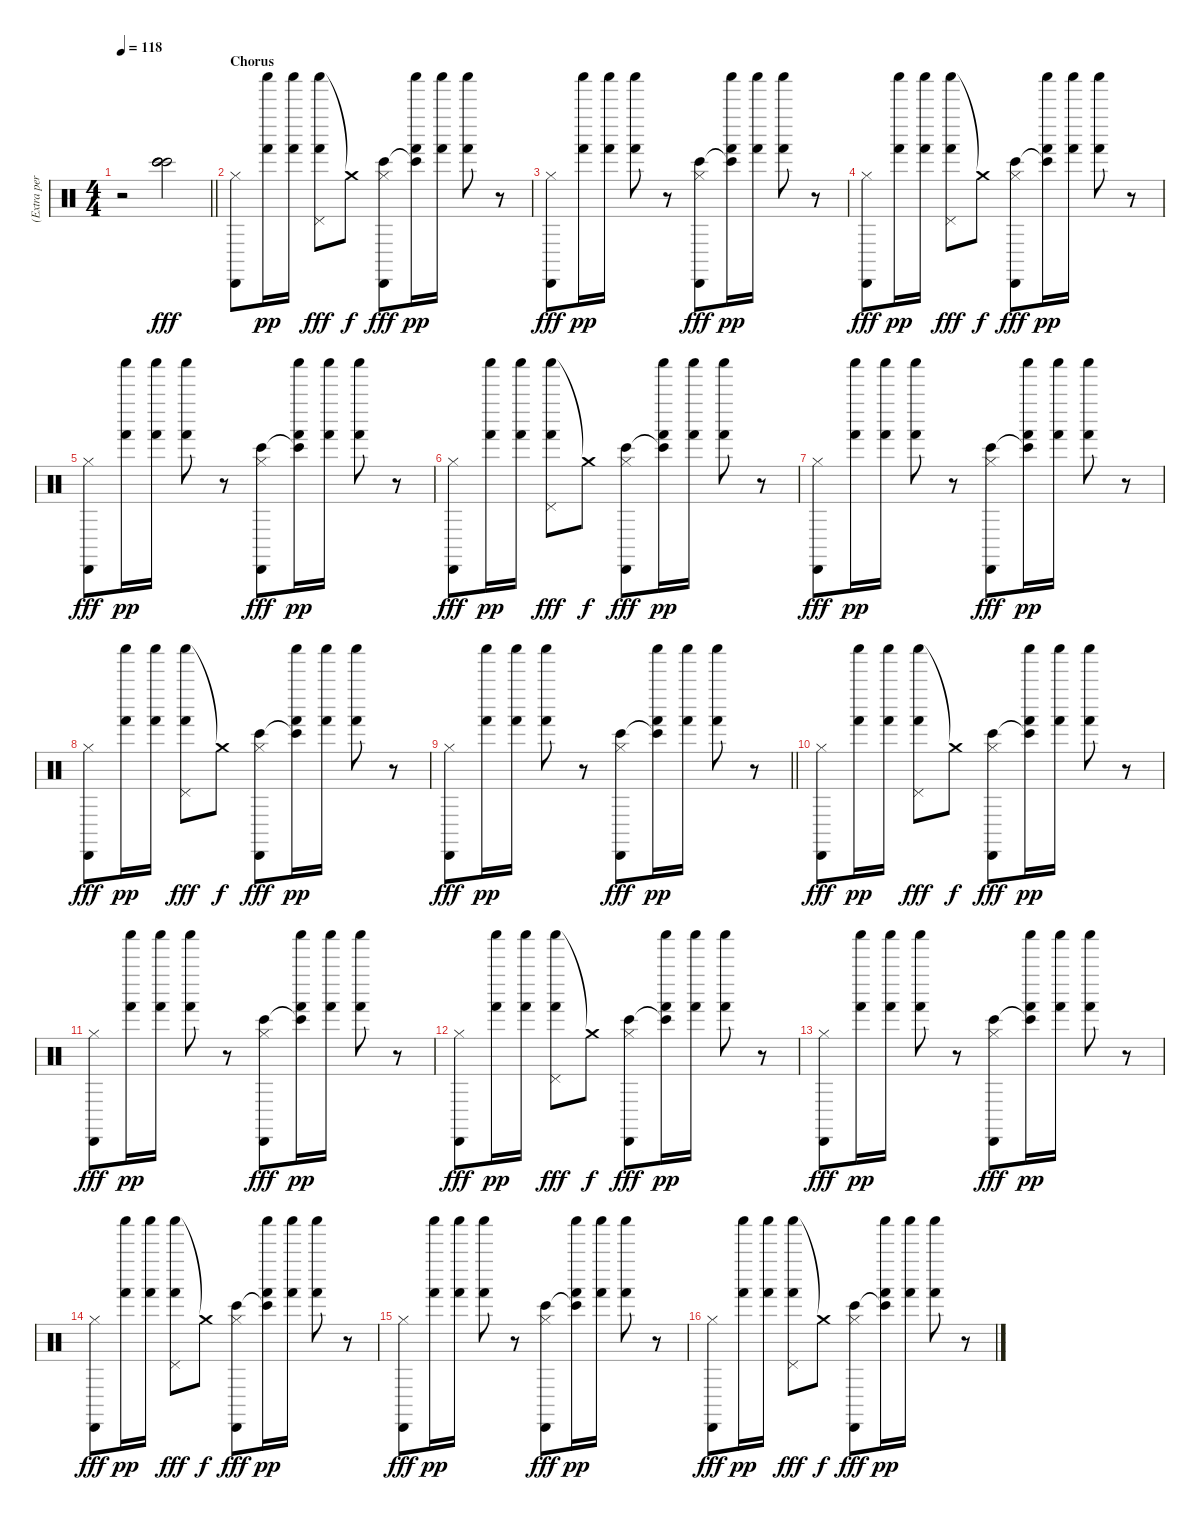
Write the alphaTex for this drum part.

\track ("(Extra percussion)Eddie Fisher" "(Extra per") {instrument percussion}
\staff {score}
\articulation defaults
\ts (4 4)
\tempo 118
\clef neutral
\barLineRight lightlight
\ks c
r.2{dy pp} ("Bongo High (hit)" "Bongo High (hit)" "Bongo High (hit)" "Bongo High (hit)").2{dy fff} |
\section ("" "Chorus")
("Cabasa (hit)" "Hi-Hat (closed)").8 ("Shaker (hit)" "Hand (hit)").16{dy pp} ("Shaker (hit)" "Hand (hit)").16 ("Shaker (hit)" "Hand (hit)" "Pedal Hi-Hat (hit)").8{dy fff} "Crash medium (hit)"{t}.8{dy f} ("Cabasa (hit)" "Hi-Hat (closed)" "Bongo High (hit)").8{dy fff} ("Shaker (hit)" "Hand (hit)" "Bongo High (hit)"{t}).16{dy pp} ("Shaker (hit)" "Hand (hit)").16 ("Shaker (hit)" "Hand (hit)").8 r.8 |
("Cabasa (hit)" "Hi-Hat (closed)").8{dy fff} ("Shaker (hit)" "Hand (hit)").16{dy pp} ("Shaker (hit)" "Hand (hit)").16 ("Shaker (hit)" "Hand (hit)").8 r.8 ("Cabasa (hit)" "Hi-Hat (closed)" "Bongo High (hit)").8{dy fff} ("Shaker (hit)" "Hand (hit)" "Bongo High (hit)"{t}).16{dy pp} ("Shaker (hit)" "Hand (hit)").16 ("Shaker (hit)" "Hand (hit)").8 r.8 |
("Cabasa (hit)" "Hi-Hat (closed)").8{dy fff} ("Shaker (hit)" "Hand (hit)").16{dy pp} ("Shaker (hit)" "Hand (hit)").16 ("Shaker (hit)" "Hand (hit)" "Pedal Hi-Hat (hit)").8{dy fff} "Crash medium (hit)"{t}.8{dy f} ("Cabasa (hit)" "Hi-Hat (closed)" "Bongo High (hit)").8{dy fff} ("Shaker (hit)" "Hand (hit)" "Bongo High (hit)"{t}).16{dy pp} ("Shaker (hit)" "Hand (hit)").16 ("Shaker (hit)" "Hand (hit)").8 r.8 |
("Cabasa (hit)" "Hi-Hat (closed)").8{dy fff} ("Shaker (hit)" "Hand (hit)").16{dy pp} ("Shaker (hit)" "Hand (hit)").16 ("Shaker (hit)" "Hand (hit)").8 r.8 ("Cabasa (hit)" "Hi-Hat (closed)" "Bongo High (hit)").8{dy fff} ("Shaker (hit)" "Hand (hit)" "Bongo High (hit)"{t}).16{dy pp} ("Shaker (hit)" "Hand (hit)").16 ("Shaker (hit)" "Hand (hit)").8 r.8 |
("Cabasa (hit)" "Hi-Hat (closed)").8{dy fff} ("Shaker (hit)" "Hand (hit)").16{dy pp} ("Shaker (hit)" "Hand (hit)").16 ("Shaker (hit)" "Hand (hit)" "Pedal Hi-Hat (hit)").8{dy fff} "Crash medium (hit)"{t}.8{dy f} ("Cabasa (hit)" "Hi-Hat (closed)" "Bongo High (hit)").8{dy fff} ("Shaker (hit)" "Hand (hit)" "Bongo High (hit)"{t}).16{dy pp} ("Shaker (hit)" "Hand (hit)").16 ("Shaker (hit)" "Hand (hit)").8 r.8 |
("Cabasa (hit)" "Hi-Hat (closed)").8{dy fff} ("Shaker (hit)" "Hand (hit)").16{dy pp} ("Shaker (hit)" "Hand (hit)").16 ("Shaker (hit)" "Hand (hit)").8 r.8 ("Cabasa (hit)" "Hi-Hat (closed)" "Bongo High (hit)").8{dy fff} ("Shaker (hit)" "Hand (hit)" "Bongo High (hit)"{t}).16{dy pp} ("Shaker (hit)" "Hand (hit)").16 ("Shaker (hit)" "Hand (hit)").8 r.8 |
("Cabasa (hit)" "Hi-Hat (closed)").8{dy fff} ("Shaker (hit)" "Hand (hit)").16{dy pp} ("Shaker (hit)" "Hand (hit)").16 ("Shaker (hit)" "Hand (hit)" "Pedal Hi-Hat (hit)").8{dy fff} "Crash medium (hit)"{t}.8{dy f} ("Cabasa (hit)" "Hi-Hat (closed)" "Bongo High (hit)").8{dy fff} ("Shaker (hit)" "Hand (hit)" "Bongo High (hit)"{t}).16{dy pp} ("Shaker (hit)" "Hand (hit)").16 ("Shaker (hit)" "Hand (hit)").8 r.8 |
\barLineRight lightlight
("Cabasa (hit)" "Hi-Hat (closed)").8{dy fff} ("Shaker (hit)" "Hand (hit)").16{dy pp} ("Shaker (hit)" "Hand (hit)").16 ("Shaker (hit)" "Hand (hit)").8 r.8 ("Cabasa (hit)" "Hi-Hat (closed)" "Bongo High (hit)").8{dy fff} ("Shaker (hit)" "Hand (hit)" "Bongo High (hit)"{t}).16{dy pp} ("Shaker (hit)" "Hand (hit)").16 ("Shaker (hit)" "Hand (hit)").8 r.8 |
("Cabasa (hit)" "Hi-Hat (closed)").8{dy fff} ("Shaker (hit)" "Hand (hit)").16{dy pp} ("Shaker (hit)" "Hand (hit)").16 ("Shaker (hit)" "Hand (hit)" "Pedal Hi-Hat (hit)").8{dy fff} "Crash medium (hit)"{t}.8{dy f} ("Cabasa (hit)" "Hi-Hat (closed)" "Bongo High (hit)").8{dy fff} ("Shaker (hit)" "Hand (hit)" "Bongo High (hit)"{t}).16{dy pp} ("Shaker (hit)" "Hand (hit)").16 ("Shaker (hit)" "Hand (hit)").8 r.8 |
("Cabasa (hit)" "Hi-Hat (closed)").8{dy fff} ("Shaker (hit)" "Hand (hit)").16{dy pp} ("Shaker (hit)" "Hand (hit)").16 ("Shaker (hit)" "Hand (hit)").8 r.8 ("Cabasa (hit)" "Hi-Hat (closed)" "Bongo High (hit)").8{dy fff} ("Shaker (hit)" "Hand (hit)" "Bongo High (hit)"{t}).16{dy pp} ("Shaker (hit)" "Hand (hit)").16 ("Shaker (hit)" "Hand (hit)").8 r.8 |
("Cabasa (hit)" "Hi-Hat (closed)").8{dy fff} ("Shaker (hit)" "Hand (hit)").16{dy pp} ("Shaker (hit)" "Hand (hit)").16 ("Shaker (hit)" "Hand (hit)" "Pedal Hi-Hat (hit)").8{dy fff} "Crash medium (hit)"{t}.8{dy f} ("Cabasa (hit)" "Hi-Hat (closed)" "Bongo High (hit)").8{dy fff} ("Shaker (hit)" "Hand (hit)" "Bongo High (hit)"{t}).16{dy pp} ("Shaker (hit)" "Hand (hit)").16 ("Shaker (hit)" "Hand (hit)").8 r.8 |
("Cabasa (hit)" "Hi-Hat (closed)").8{dy fff} ("Shaker (hit)" "Hand (hit)").16{dy pp} ("Shaker (hit)" "Hand (hit)").16 ("Shaker (hit)" "Hand (hit)").8 r.8 ("Cabasa (hit)" "Hi-Hat (closed)" "Bongo High (hit)").8{dy fff} ("Shaker (hit)" "Hand (hit)" "Bongo High (hit)"{t}).16{dy pp} ("Shaker (hit)" "Hand (hit)").16 ("Shaker (hit)" "Hand (hit)").8 r.8 |
("Cabasa (hit)" "Hi-Hat (closed)").8{dy fff} ("Shaker (hit)" "Hand (hit)").16{dy pp} ("Shaker (hit)" "Hand (hit)").16 ("Shaker (hit)" "Hand (hit)" "Pedal Hi-Hat (hit)").8{dy fff} "Crash medium (hit)"{t}.8{dy f} ("Cabasa (hit)" "Hi-Hat (closed)" "Bongo High (hit)").8{dy fff} ("Shaker (hit)" "Hand (hit)" "Bongo High (hit)"{t}).16{dy pp} ("Shaker (hit)" "Hand (hit)").16 ("Shaker (hit)" "Hand (hit)").8 r.8 |
("Cabasa (hit)" "Hi-Hat (closed)").8{dy fff} ("Shaker (hit)" "Hand (hit)").16{dy pp} ("Shaker (hit)" "Hand (hit)").16 ("Shaker (hit)" "Hand (hit)").8 r.8 ("Cabasa (hit)" "Hi-Hat (closed)" "Bongo High (hit)").8{dy fff} ("Shaker (hit)" "Hand (hit)" "Bongo High (hit)"{t}).16{dy pp} ("Shaker (hit)" "Hand (hit)").16 ("Shaker (hit)" "Hand (hit)").8 r.8 |
("Cabasa (hit)" "Hi-Hat (closed)").8{dy fff} ("Shaker (hit)" "Hand (hit)").16{dy pp} ("Shaker (hit)" "Hand (hit)").16 ("Shaker (hit)" "Hand (hit)" "Pedal Hi-Hat (hit)").8{dy fff} "Crash medium (hit)"{t}.8{dy f} ("Cabasa (hit)" "Hi-Hat (closed)" "Bongo High (hit)").8{dy fff} ("Shaker (hit)" "Hand (hit)" "Bongo High (hit)"{t}).16{dy pp} ("Shaker (hit)" "Hand (hit)").16 ("Shaker (hit)" "Hand (hit)").8 r.8
